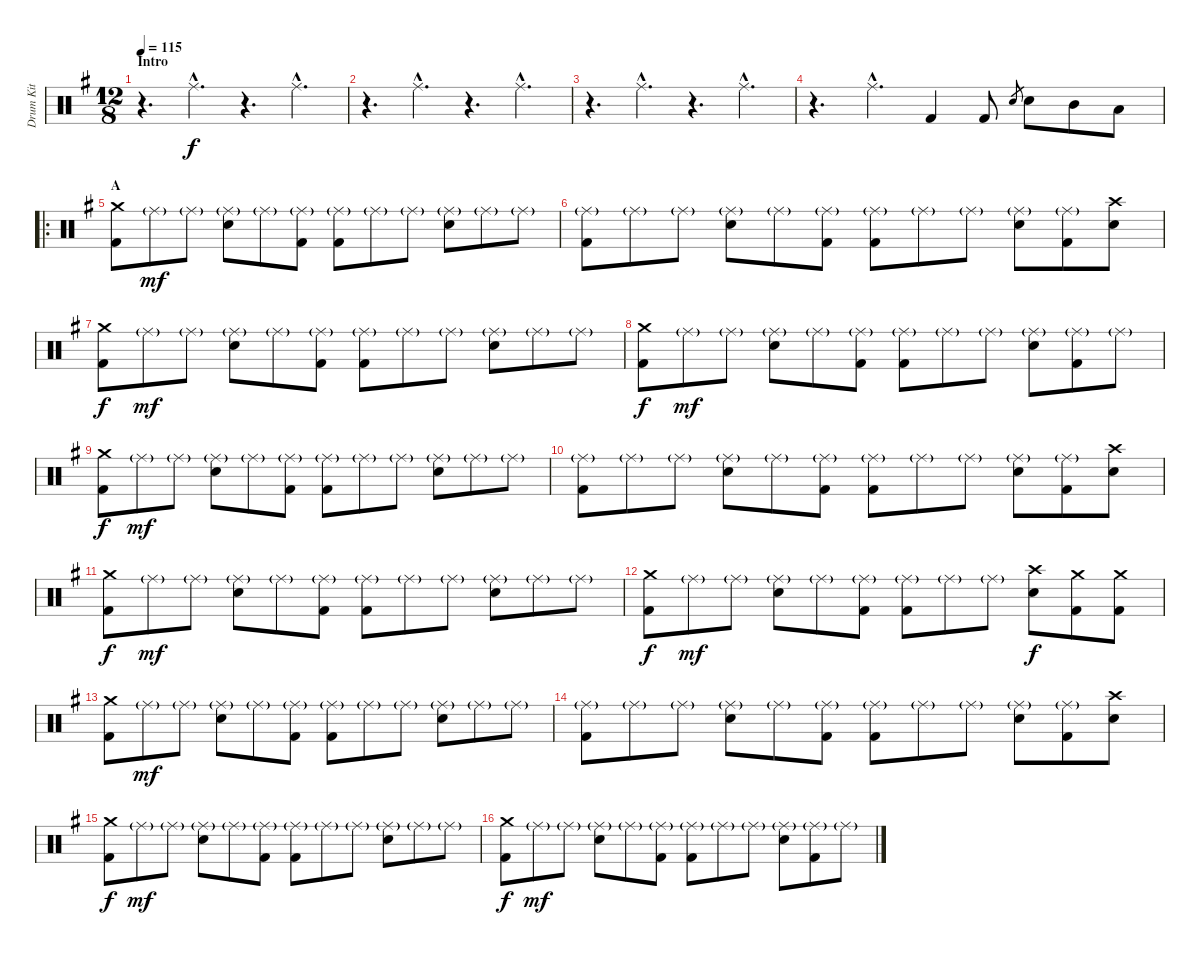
\track ("Drum Kit" "Drum Kit") {instrument percussion}
\staff {score}
\articulation defaults
\ts (12 8)
\section ("" "Intro")
\tempo 115
\clef neutral
\ks g
r.4{d dy f} "Ride (middle)"{hac}.4{d} r.4{d} "Ride (middle)"{hac}.4{d} |
r.4{d} "Ride (middle)"{hac}.4{d} r.4{d} "Ride (middle)"{hac}.4{d} |
r.4{d} "Ride (middle)"{hac}.4{d} r.4{d} "Ride (middle)"{hac}.4{d} |
r.4{d} "Ride (middle)"{hac}.4{d} "Kick (hit) 2".4 "Kick (hit) 2".8 "Electric Snare (hit)".8{gr} "Electric Snare (hit)".8 "Mid Tom (hit)".8 "Low Tom (hit)".8 |
\ro
\section ("" "A")
("Crash medium (hit)" "Kick (hit) 2").8 "Ride (middle)"{g}.8{dy mf} "Ride (middle)"{g}.8 ("Ride (middle)"{g} "Electric Snare (hit)").8 "Ride (middle)"{g}.8 ("Ride (middle)"{g} "Kick (hit) 2").8 ("Ride (middle)"{g} "Kick (hit) 2").8 "Ride (middle)"{g}.8 "Ride (middle)"{g}.8 ("Ride (middle)"{g} "Electric Snare (hit)").8 "Ride (middle)"{g}.8 "Ride (middle)"{g}.8 |
("Ride (middle)"{g} "Kick (hit) 2").8 "Ride (middle)"{g}.8 "Ride (middle)"{g}.8 ("Ride (middle)"{g} "Electric Snare (hit)").8 "Ride (middle)"{g}.8 ("Ride (middle)"{g} "Kick (hit) 2").8 ("Ride (middle)"{g} "Kick (hit) 2").8 "Ride (middle)"{g}.8 "Ride (middle)"{g}.8 ("Ride (middle)"{g} "Electric Snare (hit)").8 ("Ride (middle)"{g} "Kick (hit) 2").8 ("Crash high (hit)" "Electric Snare (hit)").8 |
("Crash medium (hit)" "Kick (hit) 2").8{dy f} "Ride (middle)"{g}.8{dy mf} "Ride (middle)"{g}.8 ("Ride (middle)"{g} "Electric Snare (hit)").8 "Ride (middle)"{g}.8 ("Ride (middle)"{g} "Kick (hit) 2").8 ("Ride (middle)"{g} "Kick (hit) 2").8 "Ride (middle)"{g}.8 "Ride (middle)"{g}.8 ("Ride (middle)"{g} "Electric Snare (hit)").8 "Ride (middle)"{g}.8 "Ride (middle)"{g}.8 |
("Crash medium (hit)" "Kick (hit) 2").8{dy f} "Ride (middle)"{g}.8{dy mf} "Ride (middle)"{g}.8 ("Ride (middle)"{g} "Electric Snare (hit)").8 "Ride (middle)"{g}.8 ("Ride (middle)"{g} "Kick (hit) 2").8 ("Ride (middle)"{g} "Kick (hit) 2").8 "Ride (middle)"{g}.8 "Ride (middle)"{g}.8 ("Ride (middle)"{g} "Electric Snare (hit)").8 ("Ride (middle)"{g} "Kick (hit) 2").8 "Ride (middle)"{g}.8 |
("Crash medium (hit)" "Kick (hit) 2").8{dy f} "Ride (middle)"{g}.8{dy mf} "Ride (middle)"{g}.8 ("Ride (middle)"{g} "Electric Snare (hit)").8 "Ride (middle)"{g}.8 ("Ride (middle)"{g} "Kick (hit) 2").8 ("Ride (middle)"{g} "Kick (hit) 2").8 "Ride (middle)"{g}.8 "Ride (middle)"{g}.8 ("Ride (middle)"{g} "Electric Snare (hit)").8 "Ride (middle)"{g}.8 "Ride (middle)"{g}.8 |
("Ride (middle)"{g} "Kick (hit) 2").8 "Ride (middle)"{g}.8 "Ride (middle)"{g}.8 ("Ride (middle)"{g} "Electric Snare (hit)").8 "Ride (middle)"{g}.8 ("Ride (middle)"{g} "Kick (hit) 2").8 ("Ride (middle)"{g} "Kick (hit) 2").8 "Ride (middle)"{g}.8 "Ride (middle)"{g}.8 ("Ride (middle)"{g} "Electric Snare (hit)").8 ("Ride (middle)"{g} "Kick (hit) 2").8 ("Crash high (hit)" "Electric Snare (hit)").8 |
("Crash medium (hit)" "Kick (hit) 2").8{dy f} "Ride (middle)"{g}.8{dy mf} "Ride (middle)"{g}.8 ("Ride (middle)"{g} "Electric Snare (hit)").8 "Ride (middle)"{g}.8 ("Ride (middle)"{g} "Kick (hit) 2").8 ("Ride (middle)"{g} "Kick (hit) 2").8 "Ride (middle)"{g}.8 "Ride (middle)"{g}.8 ("Ride (middle)"{g} "Electric Snare (hit)").8 "Ride (middle)"{g}.8 "Ride (middle)"{g}.8 |
("Crash medium (hit)" "Kick (hit) 2").8{dy f} "Ride (middle)"{g}.8{dy mf} "Ride (middle)"{g}.8 ("Ride (middle)"{g} "Electric Snare (hit)").8 "Ride (middle)"{g}.8 ("Ride (middle)"{g} "Kick (hit) 2").8 ("Ride (middle)"{g} "Kick (hit) 2").8 "Ride (middle)"{g}.8 "Ride (middle)"{g}.8 ("Crash high (hit)" "Electric Snare (hit)").8{dy f} ("Crash medium (hit)" "Kick (hit) 2").8 ("Crash medium (hit)" "Kick (hit) 2").8 |
("Crash medium (hit)" "Kick (hit) 2").8 "Ride (middle)"{g}.8{dy mf} "Ride (middle)"{g}.8 ("Ride (middle)"{g} "Electric Snare (hit)").8 "Ride (middle)"{g}.8 ("Ride (middle)"{g} "Kick (hit) 2").8 ("Ride (middle)"{g} "Kick (hit) 2").8 "Ride (middle)"{g}.8 "Ride (middle)"{g}.8 ("Ride (middle)"{g} "Electric Snare (hit)").8 "Ride (middle)"{g}.8 "Ride (middle)"{g}.8 |
("Ride (middle)"{g} "Kick (hit) 2").8 "Ride (middle)"{g}.8 "Ride (middle)"{g}.8 ("Ride (middle)"{g} "Electric Snare (hit)").8 "Ride (middle)"{g}.8 ("Ride (middle)"{g} "Kick (hit) 2").8 ("Ride (middle)"{g} "Kick (hit) 2").8 "Ride (middle)"{g}.8 "Ride (middle)"{g}.8 ("Ride (middle)"{g} "Electric Snare (hit)").8 ("Ride (middle)"{g} "Kick (hit) 2").8 ("Crash high (hit)" "Electric Snare (hit)").8 |
("Crash medium (hit)" "Kick (hit) 2").8{dy f} "Ride (middle)"{g}.8{dy mf} "Ride (middle)"{g}.8 ("Ride (middle)"{g} "Electric Snare (hit)").8 "Ride (middle)"{g}.8 ("Ride (middle)"{g} "Kick (hit) 2").8 ("Ride (middle)"{g} "Kick (hit) 2").8 "Ride (middle)"{g}.8 "Ride (middle)"{g}.8 ("Ride (middle)"{g} "Electric Snare (hit)").8 "Ride (middle)"{g}.8 "Ride (middle)"{g}.8 |
("Crash medium (hit)" "Kick (hit) 2").8{dy f} "Ride (middle)"{g}.8{dy mf} "Ride (middle)"{g}.8 ("Ride (middle)"{g} "Electric Snare (hit)").8 "Ride (middle)"{g}.8 ("Ride (middle)"{g} "Kick (hit) 2").8 ("Ride (middle)"{g} "Kick (hit) 2").8 "Ride (middle)"{g}.8 "Ride (middle)"{g}.8 ("Ride (middle)"{g} "Electric Snare (hit)").8 ("Ride (middle)"{g} "Kick (hit) 2").8 "Ride (middle)"{g}.8
